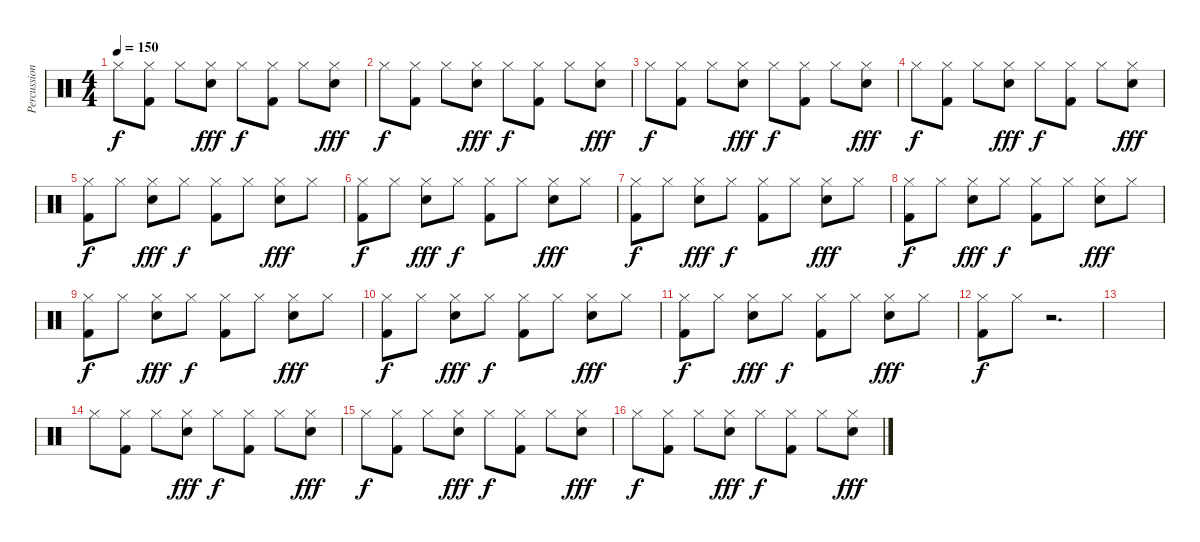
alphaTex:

\track ("Percussion" "Percussion") {instrument percussion}
\staff {score}
\articulation defaults
\ts (4 4)
\tempo 150
\clef neutral
\ks c "Hi-Hat (closed)".8{dy f}
("Hi-Hat (closed)" "Kick (hit) 2").8 "Hi-Hat (closed)".8 ("Hi-Hat (closed)" "Electric Snare (hit)").8{dy fff} "Hi-Hat (closed)".8{dy f} ("Hi-Hat (closed)" "Kick (hit) 2").8 "Hi-Hat (closed)".8 ("Hi-Hat (closed)" "Electric Snare (hit)").8{dy fff} |
"Hi-Hat (closed)".8{dy f} ("Hi-Hat (closed)" "Kick (hit) 2").8 "Hi-Hat (closed)".8 ("Hi-Hat (closed)" "Electric Snare (hit)").8{dy fff} "Hi-Hat (closed)".8{dy f} ("Hi-Hat (closed)" "Kick (hit) 2").8 "Hi-Hat (closed)".8 ("Hi-Hat (closed)" "Electric Snare (hit)").8{dy fff} |
"Hi-Hat (closed)".8{dy f} ("Hi-Hat (closed)" "Kick (hit) 2").8 "Hi-Hat (closed)".8 ("Hi-Hat (closed)" "Electric Snare (hit)").8{dy fff} "Hi-Hat (closed)".8{dy f} ("Hi-Hat (closed)" "Kick (hit) 2").8 "Hi-Hat (closed)".8 ("Hi-Hat (closed)" "Electric Snare (hit)").8{dy fff} |
"Hi-Hat (closed)".8{dy f} ("Hi-Hat (closed)" "Kick (hit) 2").8 "Hi-Hat (closed)".8 ("Hi-Hat (closed)" "Electric Snare (hit)").8{dy fff} "Hi-Hat (closed)".8{dy f} ("Hi-Hat (closed)" "Kick (hit) 2").8 "Hi-Hat (closed)".8 ("Hi-Hat (closed)" "Electric Snare (hit)").8{dy fff} |
("Hi-Hat (closed)" "Kick (hit) 2").8{dy f} "Hi-Hat (closed)".8 ("Hi-Hat (closed)" "Electric Snare (hit)").8{dy fff} "Hi-Hat (closed)".8{dy f} ("Hi-Hat (closed)" "Kick (hit) 2").8 "Hi-Hat (closed)".8 ("Hi-Hat (closed)" "Electric Snare (hit)").8{dy fff} "Hi-Hat (closed)".8 |
("Hi-Hat (closed)" "Kick (hit) 2").8{dy f} "Hi-Hat (closed)".8 ("Hi-Hat (closed)" "Electric Snare (hit)").8{dy fff} "Hi-Hat (closed)".8{dy f} ("Hi-Hat (closed)" "Kick (hit) 2").8 "Hi-Hat (closed)".8 ("Hi-Hat (closed)" "Electric Snare (hit)").8{dy fff} "Hi-Hat (closed)".8 |
("Hi-Hat (closed)" "Kick (hit) 2").8{dy f} "Hi-Hat (closed)".8 ("Hi-Hat (closed)" "Electric Snare (hit)").8{dy fff} "Hi-Hat (closed)".8{dy f} ("Hi-Hat (closed)" "Kick (hit) 2").8 "Hi-Hat (closed)".8 ("Hi-Hat (closed)" "Electric Snare (hit)").8{dy fff} "Hi-Hat (closed)".8 |
("Hi-Hat (closed)" "Kick (hit) 2").8{dy f} "Hi-Hat (closed)".8 ("Hi-Hat (closed)" "Electric Snare (hit)").8{dy fff} "Hi-Hat (closed)".8{dy f} ("Hi-Hat (closed)" "Kick (hit) 2").8 "Hi-Hat (closed)".8 ("Hi-Hat (closed)" "Electric Snare (hit)").8{dy fff} "Hi-Hat (closed)".8 |
("Hi-Hat (closed)" "Kick (hit) 2").8{dy f} "Hi-Hat (closed)".8 ("Hi-Hat (closed)" "Electric Snare (hit)").8{dy fff} "Hi-Hat (closed)".8{dy f} ("Hi-Hat (closed)" "Kick (hit) 2").8 "Hi-Hat (closed)".8 ("Hi-Hat (closed)" "Electric Snare (hit)").8{dy fff} "Hi-Hat (closed)".8 |
("Hi-Hat (closed)" "Kick (hit) 2").8{dy f} "Hi-Hat (closed)".8 ("Hi-Hat (closed)" "Electric Snare (hit)").8{dy fff} "Hi-Hat (closed)".8{dy f} ("Hi-Hat (closed)" "Kick (hit) 2").8 "Hi-Hat (closed)".8 ("Hi-Hat (closed)" "Electric Snare (hit)").8{dy fff} "Hi-Hat (closed)".8 |
("Hi-Hat (closed)" "Kick (hit) 2").8{dy f} "Hi-Hat (closed)".8 ("Hi-Hat (closed)" "Electric Snare (hit)").8{dy fff} "Hi-Hat (closed)".8{dy f} ("Hi-Hat (closed)" "Kick (hit) 2").8 "Hi-Hat (closed)".8 ("Hi-Hat (closed)" "Electric Snare (hit)").8{dy fff} "Hi-Hat (closed)".8 |
("Hi-Hat (closed)" "Kick (hit) 2").8{dy f} "Hi-Hat (closed)".8 r.2{d} |
|
"Hi-Hat (closed)".8 ("Hi-Hat (closed)" "Kick (hit) 2").8 "Hi-Hat (closed)".8 ("Hi-Hat (closed)" "Electric Snare (hit)").8{dy fff} "Hi-Hat (closed)".8{dy f} ("Hi-Hat (closed)" "Kick (hit) 2").8 "Hi-Hat (closed)".8 ("Hi-Hat (closed)" "Electric Snare (hit)").8{dy fff} |
"Hi-Hat (closed)".8{dy f} ("Hi-Hat (closed)" "Kick (hit) 2").8 "Hi-Hat (closed)".8 ("Hi-Hat (closed)" "Electric Snare (hit)").8{dy fff} "Hi-Hat (closed)".8{dy f} ("Hi-Hat (closed)" "Kick (hit) 2").8 "Hi-Hat (closed)".8 ("Hi-Hat (closed)" "Electric Snare (hit)").8{dy fff} |
"Hi-Hat (closed)".8{dy f} ("Hi-Hat (closed)" "Kick (hit) 2").8 "Hi-Hat (closed)".8 ("Hi-Hat (closed)" "Electric Snare (hit)").8{dy fff} "Hi-Hat (closed)".8{dy f} ("Hi-Hat (closed)" "Kick (hit) 2").8 "Hi-Hat (closed)".8 ("Hi-Hat (closed)" "Electric Snare (hit)").8{dy fff}
